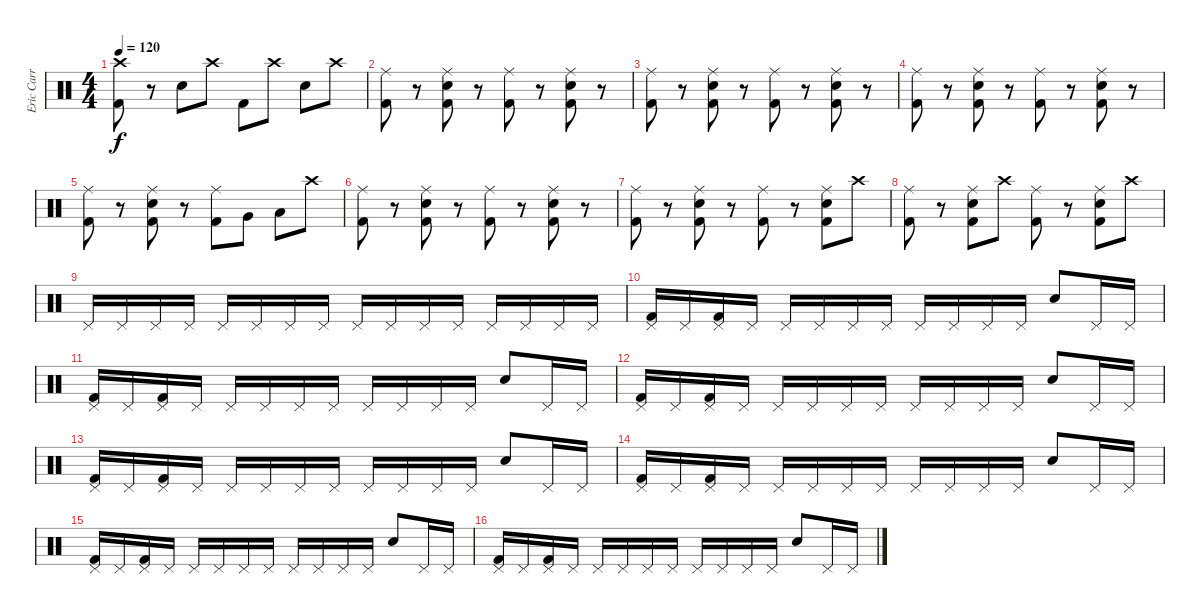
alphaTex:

\track ("Eric Carr" "Eric Carr") {instrument percussion}
\staff {score}
\articulation defaults
\ts (4 4)
\tempo 120
\clef neutral
\ks c
("Kick (hit) 2" "Crash high (hit)").8{dy f} r.8 "Snare (hit) 2".8 "Crash high (hit)".8 "Kick (hit) 2".8 "Crash high (hit)".8 "Snare (hit) 2".8 "Crash high (hit)".8 |
("Kick (hit) 2" "Ride (middle)").8 r.8 ("Kick (hit) 2" "Ride (middle)" "Snare (hit) 2").8 r.8 ("Kick (hit) 2" "Ride (middle)").8 r.8 ("Kick (hit) 2" "Ride (middle)" "Snare (hit) 2").8 r.8 |
("Kick (hit) 2" "Ride (middle)").8 r.8 ("Kick (hit) 2" "Ride (middle)" "Snare (hit) 2").8 r.8 ("Kick (hit) 2" "Ride (middle)").8 r.8 ("Kick (hit) 2" "Ride (middle)" "Snare (hit) 2").8 r.8 |
("Kick (hit) 2" "Ride (middle)").8 r.8 ("Kick (hit) 2" "Ride (middle)" "Snare (hit) 2").8 r.8 ("Kick (hit) 2" "Ride (middle)").8 r.8 ("Kick (hit) 2" "Ride (middle)" "Snare (hit) 2").8 r.8 |
("Kick (hit) 2" "Ride (middle)").8 r.8 ("Kick (hit) 2" "Ride (middle)" "Snare (hit) 2").8 r.8 ("Kick (hit) 2" "Ride (middle)").8 "Very Low Tom (hit)".8 "Low Tom (hit)".8 "Crash high (hit)".8 |
("Kick (hit) 2" "Ride (middle)").8 r.8 ("Kick (hit) 2" "Ride (middle)" "Snare (hit) 2").8 r.8 ("Kick (hit) 2" "Ride (middle)").8 r.8 ("Kick (hit) 2" "Ride (middle)" "Snare (hit) 2").8 r.8 |
("Kick (hit) 2" "Ride (middle)").8 r.8 ("Kick (hit) 2" "Ride (middle)" "Snare (hit) 2").8 r.8 ("Kick (hit) 2" "Ride (middle)").8 r.8 ("Kick (hit) 2" "Ride (middle)" "Snare (hit) 2").8 "Crash high (hit)".8 |
("Kick (hit) 2" "Ride (middle)").8 r.8 ("Kick (hit) 2" "Ride (middle)" "Snare (hit) 2").8 "Crash high (hit)".8 ("Kick (hit) 2" "Ride (middle)").8 r.8 ("Kick (hit) 2" "Ride (middle)" "Snare (hit) 2").8 "Crash high (hit)".8 |
"Pedal Hi-Hat (hit)".16 "Pedal Hi-Hat (hit)".16 "Pedal Hi-Hat (hit)".16 "Pedal Hi-Hat (hit)".16 "Pedal Hi-Hat (hit)".16 "Pedal Hi-Hat (hit)".16 "Pedal Hi-Hat (hit)".16 "Pedal Hi-Hat (hit)".16 "Pedal Hi-Hat (hit)".16 "Pedal Hi-Hat (hit)".16 "Pedal Hi-Hat (hit)".16 "Pedal Hi-Hat (hit)".16 "Pedal Hi-Hat (hit)".16 "Pedal Hi-Hat (hit)".16 "Pedal Hi-Hat (hit)".16 "Pedal Hi-Hat (hit)".16 |
("Kick (hit) 2" "Pedal Hi-Hat (hit)").16 "Pedal Hi-Hat (hit)".16 ("Kick (hit) 2" "Pedal Hi-Hat (hit)").16 "Pedal Hi-Hat (hit)".16 "Pedal Hi-Hat (hit)".16 "Pedal Hi-Hat (hit)".16 "Pedal Hi-Hat (hit)".16 "Pedal Hi-Hat (hit)".16 "Pedal Hi-Hat (hit)".16 "Pedal Hi-Hat (hit)".16 "Pedal Hi-Hat (hit)".16 "Pedal Hi-Hat (hit)".16 "Snare (hit) 2".8 "Pedal Hi-Hat (hit)".16 "Pedal Hi-Hat (hit)".16 |
("Kick (hit) 2" "Pedal Hi-Hat (hit)").16 "Pedal Hi-Hat (hit)".16 ("Kick (hit) 2" "Pedal Hi-Hat (hit)").16 "Pedal Hi-Hat (hit)".16 "Pedal Hi-Hat (hit)".16 "Pedal Hi-Hat (hit)".16 "Pedal Hi-Hat (hit)".16 "Pedal Hi-Hat (hit)".16 "Pedal Hi-Hat (hit)".16 "Pedal Hi-Hat (hit)".16 "Pedal Hi-Hat (hit)".16 "Pedal Hi-Hat (hit)".16 "Snare (hit) 2".8 "Pedal Hi-Hat (hit)".16 "Pedal Hi-Hat (hit)".16 |
("Kick (hit) 2" "Pedal Hi-Hat (hit)").16 "Pedal Hi-Hat (hit)".16 ("Kick (hit) 2" "Pedal Hi-Hat (hit)").16 "Pedal Hi-Hat (hit)".16 "Pedal Hi-Hat (hit)".16 "Pedal Hi-Hat (hit)".16 "Pedal Hi-Hat (hit)".16 "Pedal Hi-Hat (hit)".16 "Pedal Hi-Hat (hit)".16 "Pedal Hi-Hat (hit)".16 "Pedal Hi-Hat (hit)".16 "Pedal Hi-Hat (hit)".16 "Snare (hit) 2".8 "Pedal Hi-Hat (hit)".16 "Pedal Hi-Hat (hit)".16 |
("Kick (hit) 2" "Pedal Hi-Hat (hit)").16 "Pedal Hi-Hat (hit)".16 ("Kick (hit) 2" "Pedal Hi-Hat (hit)").16 "Pedal Hi-Hat (hit)".16 "Pedal Hi-Hat (hit)".16 "Pedal Hi-Hat (hit)".16 "Pedal Hi-Hat (hit)".16 "Pedal Hi-Hat (hit)".16 "Pedal Hi-Hat (hit)".16 "Pedal Hi-Hat (hit)".16 "Pedal Hi-Hat (hit)".16 "Pedal Hi-Hat (hit)".16 "Snare (hit) 2".8 "Pedal Hi-Hat (hit)".16 "Pedal Hi-Hat (hit)".16 |
("Kick (hit) 2" "Pedal Hi-Hat (hit)").16 "Pedal Hi-Hat (hit)".16 ("Kick (hit) 2" "Pedal Hi-Hat (hit)").16 "Pedal Hi-Hat (hit)".16 "Pedal Hi-Hat (hit)".16 "Pedal Hi-Hat (hit)".16 "Pedal Hi-Hat (hit)".16 "Pedal Hi-Hat (hit)".16 "Pedal Hi-Hat (hit)".16 "Pedal Hi-Hat (hit)".16 "Pedal Hi-Hat (hit)".16 "Pedal Hi-Hat (hit)".16 "Snare (hit) 2".8 "Pedal Hi-Hat (hit)".16 "Pedal Hi-Hat (hit)".16 |
("Kick (hit) 2" "Pedal Hi-Hat (hit)").16 "Pedal Hi-Hat (hit)".16 ("Kick (hit) 2" "Pedal Hi-Hat (hit)").16 "Pedal Hi-Hat (hit)".16 "Pedal Hi-Hat (hit)".16 "Pedal Hi-Hat (hit)".16 "Pedal Hi-Hat (hit)".16 "Pedal Hi-Hat (hit)".16 "Pedal Hi-Hat (hit)".16 "Pedal Hi-Hat (hit)".16 "Pedal Hi-Hat (hit)".16 "Pedal Hi-Hat (hit)".16 "Snare (hit) 2".8 "Pedal Hi-Hat (hit)".16 "Pedal Hi-Hat (hit)".16 |
("Kick (hit) 2" "Pedal Hi-Hat (hit)").16 "Pedal Hi-Hat (hit)".16 ("Kick (hit) 2" "Pedal Hi-Hat (hit)").16 "Pedal Hi-Hat (hit)".16 "Pedal Hi-Hat (hit)".16 "Pedal Hi-Hat (hit)".16 "Pedal Hi-Hat (hit)".16 "Pedal Hi-Hat (hit)".16 "Pedal Hi-Hat (hit)".16 "Pedal Hi-Hat (hit)".16 "Pedal Hi-Hat (hit)".16 "Pedal Hi-Hat (hit)".16 "Snare (hit) 2".8 "Pedal Hi-Hat (hit)".16 "Pedal Hi-Hat (hit)".16
